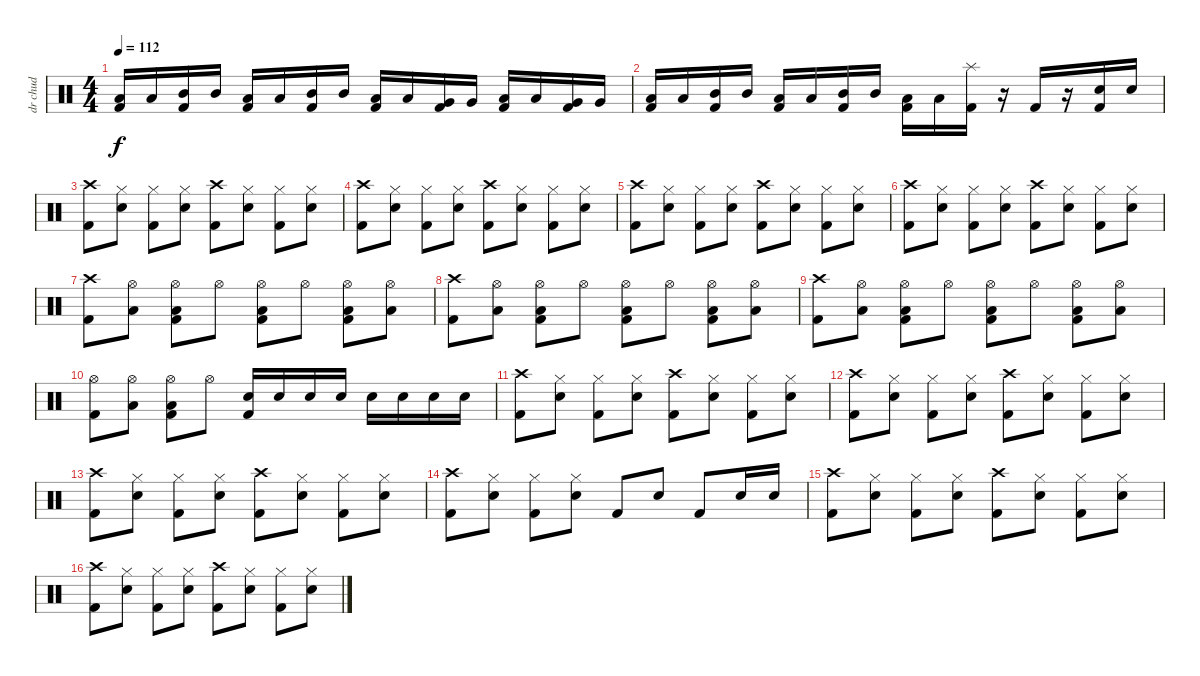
\track ("dr chud" "dr chud") {instrument percussion}
\staff {score}
\articulation defaults
\ts (4 4)
\tempo 112
\clef neutral
\ks c
("Low Tom (hit)" "Kick (hit) 2").16{dy f} "Low Tom (hit)".16 ("Mid Tom (hit)" "Kick (hit) 2").16 "Mid Tom (hit)".16 ("Low Tom (hit)" "Kick (hit) 2").16 "Low Tom (hit)".16 ("Mid Tom (hit)" "Kick (hit) 2").16 "Mid Tom (hit)".16 ("Low Tom (hit)" "Kick (hit) 2").16 "Low Tom (hit)".16 ("Very Low Tom (hit)" "Kick (hit) 2").16 "Very Low Tom (hit)".16 ("Low Tom (hit)" "Kick (hit) 2").16 "Low Tom (hit)".16 ("Very Low Tom (hit)" "Kick (hit) 2").16 "Very Low Tom (hit)".16 |
("Low Tom (hit)" "Kick (hit) 2").16 "Low Tom (hit)".16 ("Mid Tom (hit)" "Kick (hit) 2").16 "Mid Tom (hit)".16 ("Low Tom (hit)" "Kick (hit) 2").16 "Low Tom (hit)".16 ("Mid Tom (hit)" "Kick (hit) 2").16 "Mid Tom (hit)".16 ("Low Tom (hit)" "Kick (hit) 2").16 "Low Tom (hit)".16 ("Splash (hit)" "Kick (hit) 2").16 r.16 "Kick (hit) 2".16 r.16 ("Electric Snare (hit)" "Kick (hit) 2").16 "Electric Snare (hit)".16 |
("Crash high (hit)" "Kick (hit) 2").8 ("Hi-Hat (closed)" "Electric Snare (hit)").8 ("Hi-Hat (closed)" "Kick (hit) 2").8 ("Hi-Hat (closed)" "Electric Snare (hit)").8 ("Crash high (hit)" "Kick (hit) 2").8 ("Hi-Hat (closed)" "Electric Snare (hit)").8 ("Hi-Hat (closed)" "Kick (hit) 2").8 ("Hi-Hat (closed)" "Electric Snare (hit)").8 |
("Crash high (hit)" "Kick (hit) 2").8 ("Hi-Hat (closed)" "Electric Snare (hit)").8 ("Hi-Hat (closed)" "Kick (hit) 2").8 ("Hi-Hat (closed)" "Electric Snare (hit)").8 ("Crash high (hit)" "Kick (hit) 2").8 ("Hi-Hat (closed)" "Electric Snare (hit)").8 ("Hi-Hat (closed)" "Kick (hit) 2").8 ("Hi-Hat (closed)" "Electric Snare (hit)").8 |
("Crash high (hit)" "Kick (hit) 2").8 ("Hi-Hat (closed)" "Electric Snare (hit)").8 ("Hi-Hat (closed)" "Kick (hit) 2").8 ("Hi-Hat (closed)" "Electric Snare (hit)").8 ("Crash high (hit)" "Kick (hit) 2").8 ("Hi-Hat (closed)" "Electric Snare (hit)").8 ("Hi-Hat (closed)" "Kick (hit) 2").8 ("Hi-Hat (closed)" "Electric Snare (hit)").8 |
("Crash high (hit)" "Kick (hit) 2").8 ("Hi-Hat (closed)" "Electric Snare (hit)").8 ("Hi-Hat (closed)" "Kick (hit) 2").8 ("Hi-Hat (closed)" "Electric Snare (hit)").8 ("Crash high (hit)" "Kick (hit) 2").8 ("Hi-Hat (closed)" "Electric Snare (hit)").8 ("Hi-Hat (closed)" "Kick (hit) 2").8 ("Hi-Hat (closed)" "Electric Snare (hit)").8 |
("Crash high (hit)" "Kick (hit) 2").8 ("Hi-Hat (open)" "Low Tom (hit)").8 ("Hi-Hat (open)" "Low Tom (hit)" "Kick (hit) 2").8 "Hi-Hat (open)".8 ("Hi-Hat (open)" "Low Tom (hit)" "Kick (hit) 2").8 "Hi-Hat (open)".8 ("Hi-Hat (open)" "Low Tom (hit)" "Kick (hit) 2").8 ("Hi-Hat (open)" "Low Tom (hit)").8 |
("Crash high (hit)" "Kick (hit) 2").8 ("Hi-Hat (open)" "Low Tom (hit)").8 ("Hi-Hat (open)" "Low Tom (hit)" "Kick (hit) 2").8 "Hi-Hat (open)".8 ("Hi-Hat (open)" "Low Tom (hit)" "Kick (hit) 2").8 "Hi-Hat (open)".8 ("Hi-Hat (open)" "Low Tom (hit)" "Kick (hit) 2").8 ("Hi-Hat (open)" "Low Tom (hit)").8 |
("Crash high (hit)" "Kick (hit) 2").8 ("Hi-Hat (open)" "Low Tom (hit)").8 ("Hi-Hat (open)" "Low Tom (hit)" "Kick (hit) 2").8 "Hi-Hat (open)".8 ("Hi-Hat (open)" "Low Tom (hit)" "Kick (hit) 2").8 "Hi-Hat (open)".8 ("Hi-Hat (open)" "Low Tom (hit)" "Kick (hit) 2").8 ("Hi-Hat (open)" "Low Tom (hit)").8 |
("Hi-Hat (open)" "Kick (hit) 2").8 ("Hi-Hat (open)" "Low Tom (hit)").8 ("Hi-Hat (open)" "Low Tom (hit)" "Kick (hit) 2").8 "Hi-Hat (open)".8 ("Electric Snare (hit)" "Kick (hit) 2").16 "Electric Snare (hit)".16 "Electric Snare (hit)".16 "Electric Snare (hit)".16 "Electric Snare (hit)".16 "Electric Snare (hit)".16 "Electric Snare (hit)".16 "Electric Snare (hit)".16 |
("Crash high (hit)" "Kick (hit) 2").8 ("Hi-Hat (closed)" "Electric Snare (hit)").8 ("Hi-Hat (closed)" "Kick (hit) 2").8 ("Hi-Hat (closed)" "Electric Snare (hit)").8 ("Crash high (hit)" "Kick (hit) 2").8 ("Hi-Hat (closed)" "Electric Snare (hit)").8 ("Hi-Hat (closed)" "Kick (hit) 2").8 ("Hi-Hat (closed)" "Electric Snare (hit)").8 |
("Crash high (hit)" "Kick (hit) 2").8 ("Hi-Hat (closed)" "Electric Snare (hit)").8 ("Hi-Hat (closed)" "Kick (hit) 2").8 ("Hi-Hat (closed)" "Electric Snare (hit)").8 ("Crash high (hit)" "Kick (hit) 2").8 ("Hi-Hat (closed)" "Electric Snare (hit)").8 ("Hi-Hat (closed)" "Kick (hit) 2").8 ("Hi-Hat (closed)" "Electric Snare (hit)").8 |
("Crash high (hit)" "Kick (hit) 2").8 ("Hi-Hat (closed)" "Electric Snare (hit)").8 ("Hi-Hat (closed)" "Kick (hit) 2").8 ("Hi-Hat (closed)" "Electric Snare (hit)").8 ("Crash high (hit)" "Kick (hit) 2").8 ("Hi-Hat (closed)" "Electric Snare (hit)").8 ("Hi-Hat (closed)" "Kick (hit) 2").8 ("Hi-Hat (closed)" "Electric Snare (hit)").8 |
("Crash high (hit)" "Kick (hit) 2").8 ("Hi-Hat (closed)" "Electric Snare (hit)").8 ("Hi-Hat (closed)" "Kick (hit) 2").8 ("Hi-Hat (closed)" "Electric Snare (hit)").8 "Kick (hit) 2".8 "Electric Snare (hit)".8 "Kick (hit) 2".8 "Electric Snare (hit)".16 "Electric Snare (hit)".16 |
("Crash high (hit)" "Kick (hit) 2").8 ("Hi-Hat (closed)" "Electric Snare (hit)").8 ("Hi-Hat (closed)" "Kick (hit) 2").8 ("Hi-Hat (closed)" "Electric Snare (hit)").8 ("Crash high (hit)" "Kick (hit) 2").8 ("Hi-Hat (closed)" "Electric Snare (hit)").8 ("Hi-Hat (closed)" "Kick (hit) 2").8 ("Hi-Hat (closed)" "Electric Snare (hit)").8 |
("Crash high (hit)" "Kick (hit) 2").8 ("Hi-Hat (closed)" "Electric Snare (hit)").8 ("Hi-Hat (closed)" "Kick (hit) 2").8 ("Hi-Hat (closed)" "Electric Snare (hit)").8 ("Crash high (hit)" "Kick (hit) 2").8 ("Hi-Hat (closed)" "Electric Snare (hit)").8 ("Hi-Hat (closed)" "Kick (hit) 2").8 ("Hi-Hat (closed)" "Electric Snare (hit)").8
